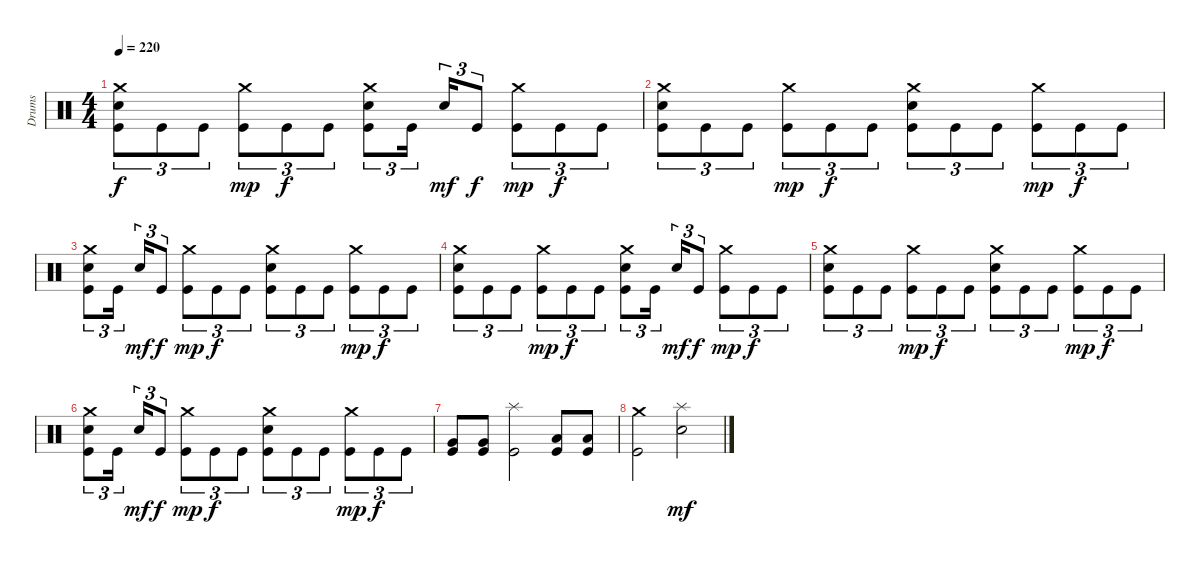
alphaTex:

\track ("Drums" "Drums") {instrument percussion}
\staff {score}
\articulation defaults
\ts (4 4)
\tempo 220
\clef neutral
\ks c
("Crash medium (hit)" "Electric Snare (hit)" "Kick (hit)").8{tu (3 2) dy f} "Kick (hit)".8{tu (3 2)} "Kick (hit)".8{tu (3 2)} ("Crash medium (hit)" "Kick (hit)").8{tu (3 2) dy mp} "Kick (hit)".8{tu (3 2) dy f} "Kick (hit)".8{tu (3 2)} ("Crash medium (hit)" "Electric Snare (hit)" "Kick (hit)").8{tu (3 2)} "Kick (hit)".16{tu (3 2)} "Electric Snare (hit)".16{tu (3 2) dy mf} "Kick (hit)".8{tu (3 2) dy f} ("Crash medium (hit)" "Kick (hit)").8{tu (3 2) dy mp} "Kick (hit)".8{tu (3 2) dy f} "Kick (hit)".8{tu (3 2)} |
("Crash medium (hit)" "Electric Snare (hit)" "Kick (hit)").8{tu (3 2)} "Kick (hit)".8{tu (3 2)} "Kick (hit)".8{tu (3 2)} ("Crash medium (hit)" "Kick (hit)").8{tu (3 2) dy mp} "Kick (hit)".8{tu (3 2) dy f} "Kick (hit)".8{tu (3 2)} ("Crash medium (hit)" "Electric Snare (hit)" "Kick (hit)").8{tu (3 2)} "Kick (hit)".8{tu (3 2)} "Kick (hit)".8{tu (3 2)} ("Crash medium (hit)" "Kick (hit)").8{tu (3 2) dy mp} "Kick (hit)".8{tu (3 2) dy f} "Kick (hit)".8{tu (3 2)} |
("Crash medium (hit)" "Electric Snare (hit)" "Kick (hit)").8{tu (3 2)} "Kick (hit)".16{tu (3 2)} "Electric Snare (hit)".16{tu (3 2) dy mf} "Kick (hit)".8{tu (3 2) dy f} ("Crash medium (hit)" "Kick (hit)").8{tu (3 2) dy mp} "Kick (hit)".8{tu (3 2) dy f} "Kick (hit)".8{tu (3 2)} ("Crash medium (hit)" "Electric Snare (hit)" "Kick (hit)").8{tu (3 2)} "Kick (hit)".8{tu (3 2)} "Kick (hit)".8{tu (3 2)} ("Crash medium (hit)" "Kick (hit)").8{tu (3 2) dy mp} "Kick (hit)".8{tu (3 2) dy f} "Kick (hit)".8{tu (3 2)} |
("Crash medium (hit)" "Electric Snare (hit)" "Kick (hit)").8{tu (3 2)} "Kick (hit)".8{tu (3 2)} "Kick (hit)".8{tu (3 2)} ("Crash medium (hit)" "Kick (hit)").8{tu (3 2) dy mp} "Kick (hit)".8{tu (3 2) dy f} "Kick (hit)".8{tu (3 2)} ("Crash medium (hit)" "Electric Snare (hit)" "Kick (hit)").8{tu (3 2)} "Kick (hit)".16{tu (3 2)} "Electric Snare (hit)".16{tu (3 2) dy mf} "Kick (hit)".8{tu (3 2) dy f} ("Crash medium (hit)" "Kick (hit)").8{tu (3 2) dy mp} "Kick (hit)".8{tu (3 2) dy f} "Kick (hit)".8{tu (3 2)} |
("Crash medium (hit)" "Electric Snare (hit)" "Kick (hit)").8{tu (3 2)} "Kick (hit)".8{tu (3 2)} "Kick (hit)".8{tu (3 2)} ("Crash medium (hit)" "Kick (hit)").8{tu (3 2) dy mp} "Kick (hit)".8{tu (3 2) dy f} "Kick (hit)".8{tu (3 2)} ("Crash medium (hit)" "Electric Snare (hit)" "Kick (hit)").8{tu (3 2)} "Kick (hit)".8{tu (3 2)} "Kick (hit)".8{tu (3 2)} ("Crash medium (hit)" "Kick (hit)").8{tu (3 2) dy mp} "Kick (hit)".8{tu (3 2) dy f} "Kick (hit)".8{tu (3 2)} |
("Crash medium (hit)" "Electric Snare (hit)" "Kick (hit)").8{tu (3 2)} "Kick (hit)".16{tu (3 2)} "Electric Snare (hit)".16{tu (3 2) dy mf} "Kick (hit)".8{tu (3 2) dy f} ("Crash medium (hit)" "Kick (hit)").8{tu (3 2) dy mp} "Kick (hit)".8{tu (3 2) dy f} "Kick (hit)".8{tu (3 2)} ("Crash medium (hit)" "Electric Snare (hit)" "Kick (hit)").8{tu (3 2)} "Kick (hit)".8{tu (3 2)} "Kick (hit)".8{tu (3 2)} ("Crash medium (hit)" "Kick (hit)").8{tu (3 2) dy mp} "Kick (hit)".8{tu (3 2) dy f} "Kick (hit)".8{tu (3 2)} |
("Very Low Tom (hit)" "Kick (hit)").8 ("Very Low Tom (hit)" "Kick (hit)").8 ("Splash (hit)" "Kick (hit)").2 ("Low Floor Tom (hit)" "Kick (hit)").8 ("Low Floor Tom (hit)" "Kick (hit)").8 |
("Crash medium (hit)" "Kick (hit)").2 ("Splash (hit)" "Electric Snare (hit)").2{dy mf}
